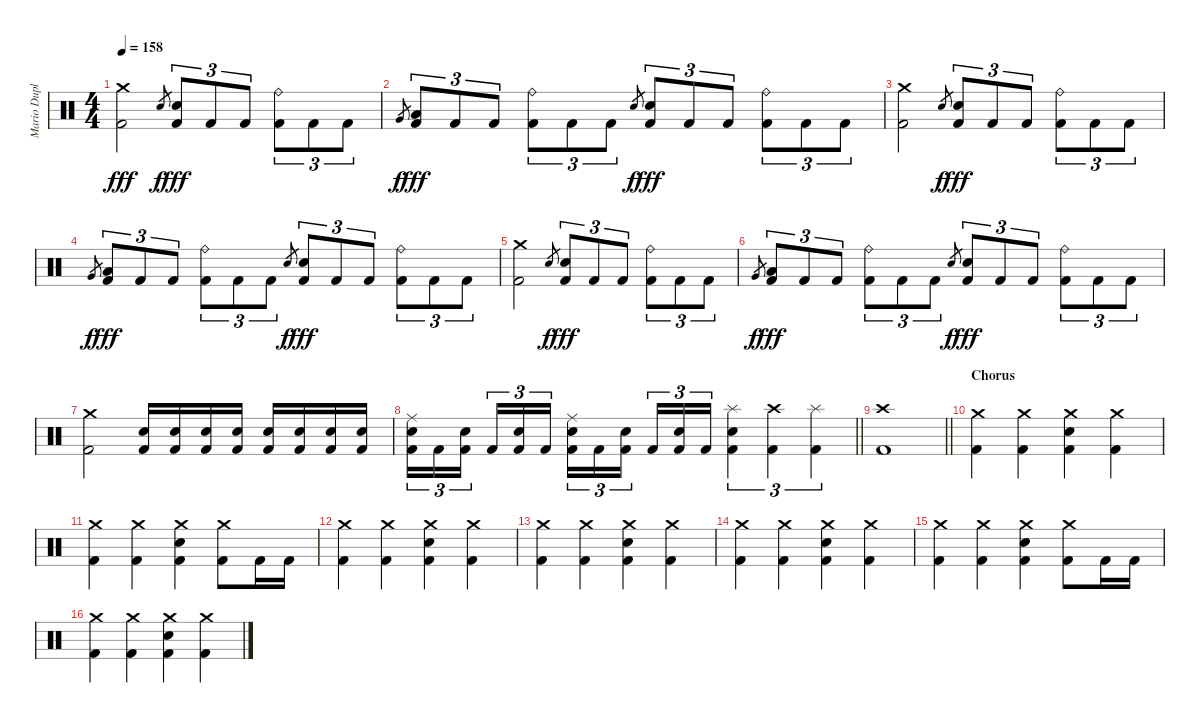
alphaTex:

\track ("Mario Duplantier" "Mario Dupl") {instrument percussion}
\staff {score}
\articulation defaults
\ts (4 4)
\tempo 158
\clef neutral
\ks c
("Crash medium (hit)" "Kick (hit) 2").2{dy fff} "Electric Snare (hit)".8{gr dy f} ("Electric Snare (hit)" "Kick (hit) 2").8{tu (3 2) dy fff} "Kick (hit) 2".8{tu (3 2)} "Kick (hit) 2".8{tu (3 2)} ("Ride (bell)" "Kick (hit) 2").8{tu (3 2)} "Kick (hit) 2".8{tu (3 2)} "Kick (hit) 2".8{tu (3 2)} |
"Very Low Tom (hit)".8{gr dy f} ("Low Tom (hit)" "Kick (hit) 2").8{tu (3 2) dy fff} "Kick (hit) 2".8{tu (3 2)} "Kick (hit) 2".8{tu (3 2)} ("Ride (bell)" "Kick (hit) 2").8{tu (3 2)} "Kick (hit) 2".8{tu (3 2)} "Kick (hit) 2".8{tu (3 2)} "Electric Snare (hit)".8{gr dy f} ("Electric Snare (hit)" "Kick (hit) 2").8{tu (3 2) dy fff} "Kick (hit) 2".8{tu (3 2)} "Kick (hit) 2".8{tu (3 2)} ("Ride (bell)" "Kick (hit) 2").8{tu (3 2)} "Kick (hit) 2".8{tu (3 2)} "Kick (hit) 2".8{tu (3 2)} |
("Crash medium (hit)" "Kick (hit) 2").2 "Electric Snare (hit)".8{gr dy f} ("Electric Snare (hit)" "Kick (hit) 2").8{tu (3 2) dy fff} "Kick (hit) 2".8{tu (3 2)} "Kick (hit) 2".8{tu (3 2)} ("Ride (bell)" "Kick (hit) 2").8{tu (3 2)} "Kick (hit) 2".8{tu (3 2)} "Kick (hit) 2".8{tu (3 2)} |
"Very Low Tom (hit)".8{gr dy f} ("Low Tom (hit)" "Kick (hit) 2").8{tu (3 2) dy fff} "Kick (hit) 2".8{tu (3 2)} "Kick (hit) 2".8{tu (3 2)} ("Ride (bell)" "Kick (hit) 2").8{tu (3 2)} "Kick (hit) 2".8{tu (3 2)} "Kick (hit) 2".8{tu (3 2)} "Electric Snare (hit)".8{gr dy f} ("Electric Snare (hit)" "Kick (hit) 2").8{tu (3 2) dy fff} "Kick (hit) 2".8{tu (3 2)} "Kick (hit) 2".8{tu (3 2)} ("Ride (bell)" "Kick (hit) 2").8{tu (3 2)} "Kick (hit) 2".8{tu (3 2)} "Kick (hit) 2".8{tu (3 2)} |
("Crash medium (hit)" "Kick (hit) 2").2 "Electric Snare (hit)".8{gr dy f} ("Electric Snare (hit)" "Kick (hit) 2").8{tu (3 2) dy fff} "Kick (hit) 2".8{tu (3 2)} "Kick (hit) 2".8{tu (3 2)} ("Ride (bell)" "Kick (hit) 2").8{tu (3 2)} "Kick (hit) 2".8{tu (3 2)} "Kick (hit) 2".8{tu (3 2)} |
"Very Low Tom (hit)".8{gr dy f} ("Low Tom (hit)" "Kick (hit) 2").8{tu (3 2) dy fff} "Kick (hit) 2".8{tu (3 2)} "Kick (hit) 2".8{tu (3 2)} ("Ride (bell)" "Kick (hit) 2").8{tu (3 2)} "Kick (hit) 2".8{tu (3 2)} "Kick (hit) 2".8{tu (3 2)} "Electric Snare (hit)".8{gr dy f} ("Electric Snare (hit)" "Kick (hit) 2").8{tu (3 2) dy fff} "Kick (hit) 2".8{tu (3 2)} "Kick (hit) 2".8{tu (3 2)} ("Ride (bell)" "Kick (hit) 2").8{tu (3 2)} "Kick (hit) 2".8{tu (3 2)} "Kick (hit) 2".8{tu (3 2)} |
("Crash medium (hit)" "Kick (hit) 2").2 ("Electric Snare (hit)" "Kick (hit) 2").16 ("Electric Snare (hit)" "Kick (hit) 2").16 ("Electric Snare (hit)" "Kick (hit) 2").16 ("Electric Snare (hit)" "Kick (hit) 2").16 ("Electric Snare (hit)" "Kick (hit) 2").16 ("Electric Snare (hit)" "Kick (hit) 2").16 ("Electric Snare (hit)" "Kick (hit) 2").16 ("Electric Snare (hit)" "Kick (hit) 2").16 |
\barLineRight lightlight
("Ride (middle)" "Electric Snare (hit)" "Kick (hit) 2").16{tu (3 2)} "Kick (hit) 2".16{tu (3 2)} ("Electric Snare (hit)" "Kick (hit) 2").16{tu (3 2) beam splitsecondary} "Kick (hit) 2".16{tu (3 2)} ("Electric Snare (hit)" "Kick (hit) 2").16{tu (3 2)} "Kick (hit) 2".16{tu (3 2)} ("Ride (middle)" "Electric Snare (hit)" "Kick (hit) 2").16{tu (3 2)} "Kick (hit) 2".16{tu (3 2)} ("Electric Snare (hit)" "Kick (hit) 2").16{tu (3 2) beam splitsecondary} "Kick (hit) 2".16{tu (3 2)} ("Electric Snare (hit)" "Kick (hit) 2").16{tu (3 2)} "Kick (hit) 2".16{tu (3 2)} ("Splash (hit)" "Electric Snare (hit)" "Kick (hit) 2").4{tu (3 2)} ("Crash high (hit)" "Kick (hit) 2").4{tu (3 2)} ("Splash (hit)" "Kick (hit) 2").4{tu (3 2)} |
\barLineRight lightlight
("Crash high (hit)" "Kick (hit) 2").1 |
\section ("" "Chorus")
("Crash medium (hit)" "Kick (hit) 2").4 ("Crash medium (hit)" "Kick (hit) 2").4 ("Crash medium (hit)" "Electric Snare (hit)" "Kick (hit) 2").4 ("Crash medium (hit)" "Kick (hit) 2").4 |
("Crash medium (hit)" "Kick (hit) 2").4 ("Crash medium (hit)" "Kick (hit) 2").4 ("Crash medium (hit)" "Electric Snare (hit)" "Kick (hit) 2").4 ("Crash medium (hit)" "Kick (hit) 2").8 "Kick (hit) 2".16 "Kick (hit) 2".16 |
("Crash medium (hit)" "Kick (hit) 2").4 ("Crash medium (hit)" "Kick (hit) 2").4 ("Crash medium (hit)" "Electric Snare (hit)" "Kick (hit) 2").4 ("Crash medium (hit)" "Kick (hit) 2").4 |
("Crash medium (hit)" "Kick (hit) 2").4 ("Crash medium (hit)" "Kick (hit) 2").4 ("Crash medium (hit)" "Electric Snare (hit)" "Kick (hit) 2").4 ("Crash medium (hit)" "Kick (hit) 2").4 |
("Crash medium (hit)" "Kick (hit) 2").4 ("Crash medium (hit)" "Kick (hit) 2").4 ("Crash medium (hit)" "Electric Snare (hit)" "Kick (hit) 2").4 ("Crash medium (hit)" "Kick (hit) 2").4 |
("Crash medium (hit)" "Kick (hit) 2").4 ("Crash medium (hit)" "Kick (hit) 2").4 ("Crash medium (hit)" "Electric Snare (hit)" "Kick (hit) 2").4 ("Crash medium (hit)" "Kick (hit) 2").8 "Kick (hit) 2".16 "Kick (hit) 2".16 |
("Crash medium (hit)" "Kick (hit) 2").4 ("Crash medium (hit)" "Kick (hit) 2").4 ("Crash medium (hit)" "Electric Snare (hit)" "Kick (hit) 2").4 ("Crash medium (hit)" "Kick (hit) 2").4
